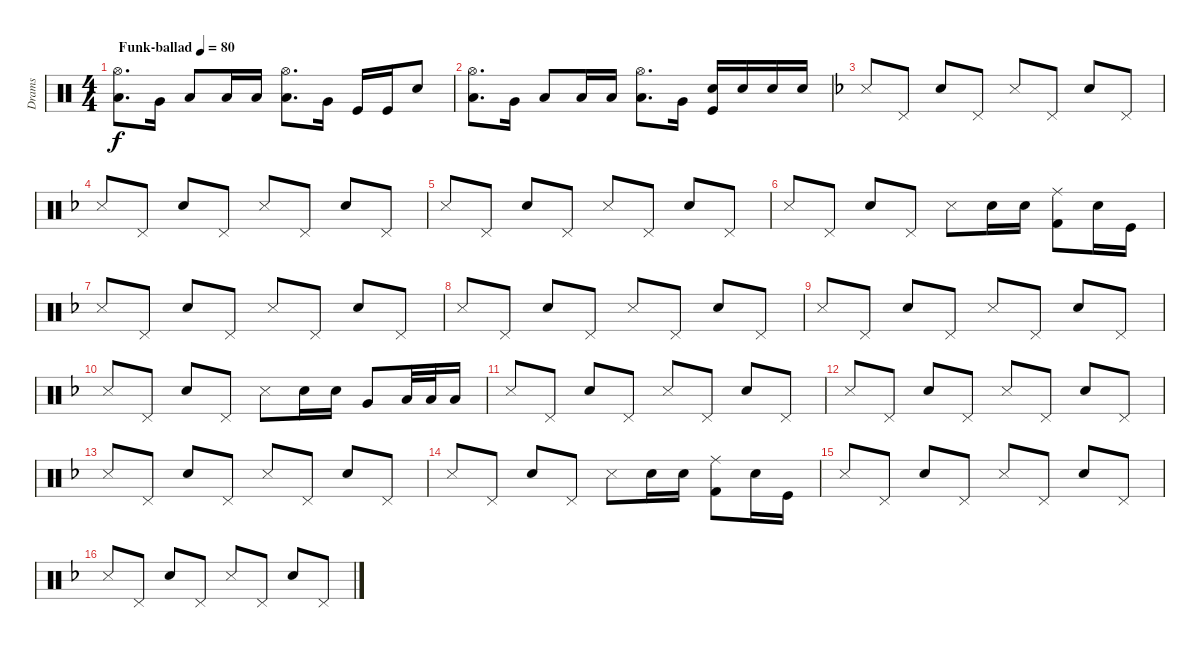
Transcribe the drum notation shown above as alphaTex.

\track ("Drams" "Drams") {instrument percussion}
\staff {score}
\articulation defaults
\ts (4 4)
\tempo (80 "Funk-ballad")
\clef neutral
\ks c
("Low Floor Tom (hit)" "Hi-Hat (open)").8{d dy f} "Very Low Tom (hit)".16 "Low Tom (hit)".8 "Low Tom (hit)".16 "Low Tom (hit)".16 ("Low Floor Tom (hit)" "Hi-Hat (open)").8{d} "Very Low Tom (hit)".16 "Kick (hit)".16 "Kick (hit)".16 "Electric Snare (hit)".8 |
("Low Floor Tom (hit)" "Hi-Hat (open)").8{d} "Very Low Tom (hit)".16 "Low Tom (hit)".8 "Low Tom (hit)".16 "Low Tom (hit)".16 ("Low Floor Tom (hit)" "Hi-Hat (open)").8{d} "Very Low Tom (hit)".16 ("Kick (hit)" "Electric Snare (hit)").16 "Electric Snare (hit)".16 "Electric Snare (hit)".16 "Electric Snare (hit)".16 |
\ks dminor "Snare (side stick) 3".8 "Pedal Hi-Hat (hit)".8 "Electric Snare (hit)".8 "Pedal Hi-Hat (hit)".8 "Snare (side stick) 3".8 "Pedal Hi-Hat (hit)".8 "Electric Snare (hit)".8 "Pedal Hi-Hat (hit)".8
|
"Snare (side stick) 3".8 "Pedal Hi-Hat (hit)".8 "Electric Snare (hit)".8 "Pedal Hi-Hat (hit)".8 "Snare (side stick) 3".8 "Pedal Hi-Hat (hit)".8 "Electric Snare (hit)".8 "Pedal Hi-Hat (hit)".8 |
"Snare (side stick) 3".8 "Pedal Hi-Hat (hit)".8 "Electric Snare (hit)".8 "Pedal Hi-Hat (hit)".8 "Snare (side stick) 3".8 "Pedal Hi-Hat (hit)".8 "Electric Snare (hit)".8 "Pedal Hi-Hat (hit)".8 |
"Snare (side stick) 3".8 "Pedal Hi-Hat (hit)".8 "Electric Snare (hit)".8 "Pedal Hi-Hat (hit)".8 "Snare (side stick) 3".8 "Electric Snare (hit)".16 "Electric Snare (hit)".16 ("Ride (middle)" "Kick (hit) 2").8 "Electric Snare (hit)".16 "Kick (hit)".16 |
"Snare (side stick) 3".8 "Pedal Hi-Hat (hit)".8 "Electric Snare (hit)".8 "Pedal Hi-Hat (hit)".8 "Snare (side stick) 3".8 "Pedal Hi-Hat (hit)".8 "Electric Snare (hit)".8 "Pedal Hi-Hat (hit)".8 |
"Snare (side stick) 3".8 "Pedal Hi-Hat (hit)".8 "Electric Snare (hit)".8 "Pedal Hi-Hat (hit)".8 "Snare (side stick) 3".8 "Pedal Hi-Hat (hit)".8 "Electric Snare (hit)".8 "Pedal Hi-Hat (hit)".8 |
"Snare (side stick) 3".8 "Pedal Hi-Hat (hit)".8 "Electric Snare (hit)".8 "Pedal Hi-Hat (hit)".8 "Snare (side stick) 3".8 "Pedal Hi-Hat (hit)".8 "Electric Snare (hit)".8 "Pedal Hi-Hat (hit)".8 |
"Snare (side stick) 3".8 "Pedal Hi-Hat (hit)".8 "Electric Snare (hit)".8 "Pedal Hi-Hat (hit)".8 "Snare (side stick) 3".8 "Electric Snare (hit)".16 "Electric Snare (hit)".16 "Very Low Tom (hit)".8 "Low Tom (hit)".32 "Low Tom (hit)".32 "Low Tom (hit)".16 |
"Snare (side stick) 3".8 "Pedal Hi-Hat (hit)".8 "Electric Snare (hit)".8 "Pedal Hi-Hat (hit)".8 "Snare (side stick) 3".8 "Pedal Hi-Hat (hit)".8 "Electric Snare (hit)".8 "Pedal Hi-Hat (hit)".8 |
"Snare (side stick) 3".8 "Pedal Hi-Hat (hit)".8 "Electric Snare (hit)".8 "Pedal Hi-Hat (hit)".8 "Snare (side stick) 3".8 "Pedal Hi-Hat (hit)".8 "Electric Snare (hit)".8 "Pedal Hi-Hat (hit)".8 |
"Snare (side stick) 3".8 "Pedal Hi-Hat (hit)".8 "Electric Snare (hit)".8 "Pedal Hi-Hat (hit)".8 "Snare (side stick) 3".8 "Pedal Hi-Hat (hit)".8 "Electric Snare (hit)".8 "Pedal Hi-Hat (hit)".8 |
"Snare (side stick) 3".8 "Pedal Hi-Hat (hit)".8 "Electric Snare (hit)".8 "Pedal Hi-Hat (hit)".8 "Snare (side stick) 3".8 "Electric Snare (hit)".16 "Electric Snare (hit)".16 ("Ride (middle)" "Kick (hit) 2").8 "Electric Snare (hit)".16 "Kick (hit)".16 |
"Snare (side stick) 3".8 "Pedal Hi-Hat (hit)".8 "Electric Snare (hit)".8 "Pedal Hi-Hat (hit)".8 "Snare (side stick) 3".8 "Pedal Hi-Hat (hit)".8 "Electric Snare (hit)".8 "Pedal Hi-Hat (hit)".8 |
"Snare (side stick) 3".8 "Pedal Hi-Hat (hit)".8 "Electric Snare (hit)".8 "Pedal Hi-Hat (hit)".8 "Snare (side stick) 3".8 "Pedal Hi-Hat (hit)".8 "Electric Snare (hit)".8 "Pedal Hi-Hat (hit)".8
